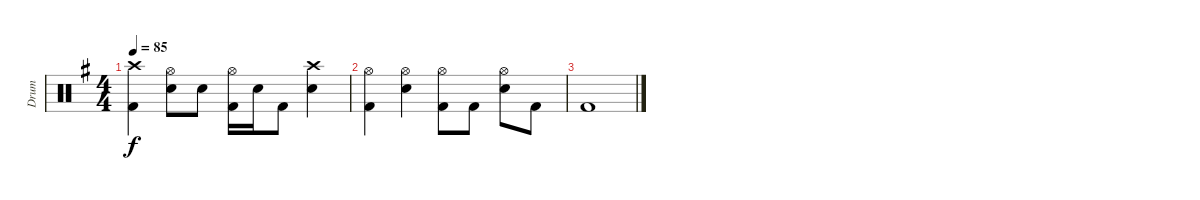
\track ("Drum" "Drum") {instrument percussion}
\staff {score}
\articulation defaults
\ts (4 4)
\tempo 85
\clef neutral
\ks g
("Kick (hit) 2" "Crash high (hit)").4{dy f} ("Electric Snare (hit)" "Hi-Hat (open)").8 "Electric Snare (hit)".8 ("Kick (hit) 2" "Hi-Hat (open)").16 "Electric Snare (hit)".16 "Kick (hit) 2".8 ("Electric Snare (hit)" "Crash high (hit)").4 |
("Kick (hit) 2" "Hi-Hat (open)").4 ("Electric Snare (hit)" "Hi-Hat (open)").4 ("Kick (hit) 2" "Hi-Hat (open)").8 "Kick (hit) 2".8 ("Electric Snare (hit)" "Hi-Hat (open)").8 "Kick (hit) 2".8 |
"Kick (hit) 2".1
